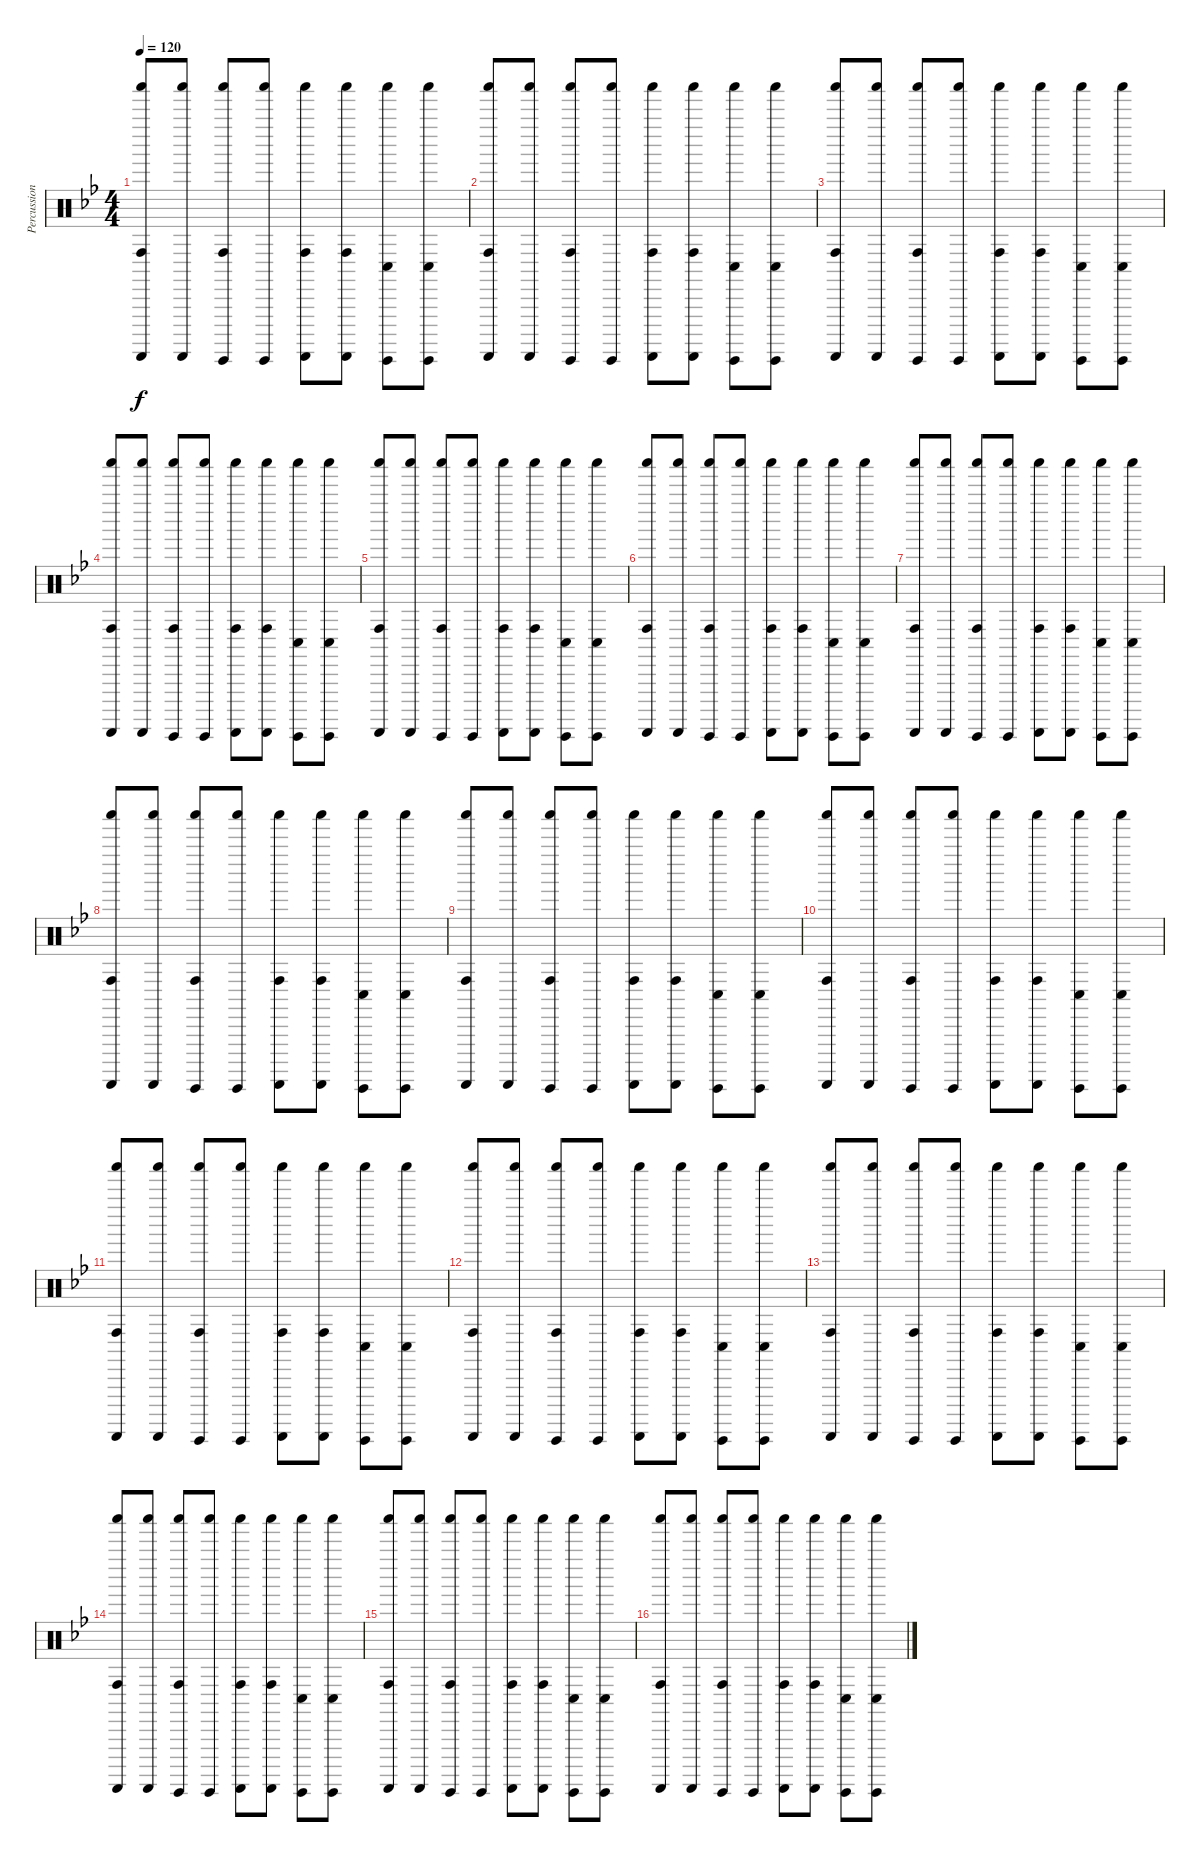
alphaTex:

\track ("Percussion" "Percussion") {instrument percussion}
\staff {score}
\articulation defaults
\ts (4 4)
\tempo 120
\clef neutral
\ks bb
("Shaker (hit)" "Guiro (scrap-return)" "Conga high (hit)").8{dy f} ("Shaker (hit)" "Guiro (scrap-return)").8 ("Shaker (hit)" "Guiro (hit)" "Conga high (hit)").8 ("Shaker (hit)" "Guiro (hit)").8 ("Shaker (hit)" "Guiro (scrap-return)" "Conga high (hit)").8 ("Shaker (hit)" "Guiro (scrap-return)" "Conga high (hit)").8 ("Shaker (hit)" "Guiro (hit)" "Conga low (hit)").8 ("Shaker (hit)" "Guiro (hit)" "Conga low (hit)").8 |
("Shaker (hit)" "Guiro (scrap-return)" "Conga high (hit)").8 ("Shaker (hit)" "Guiro (scrap-return)").8 ("Shaker (hit)" "Guiro (hit)" "Conga high (hit)").8 ("Shaker (hit)" "Guiro (hit)").8 ("Shaker (hit)" "Guiro (scrap-return)" "Conga high (hit)").8 ("Shaker (hit)" "Guiro (scrap-return)" "Conga high (hit)").8 ("Shaker (hit)" "Guiro (hit)" "Conga low (hit)").8 ("Shaker (hit)" "Guiro (hit)" "Conga low (hit)").8 |
("Shaker (hit)" "Guiro (scrap-return)" "Conga high (hit)").8 ("Shaker (hit)" "Guiro (scrap-return)").8 ("Shaker (hit)" "Guiro (hit)" "Conga high (hit)").8 ("Shaker (hit)" "Guiro (hit)").8 ("Shaker (hit)" "Guiro (scrap-return)" "Conga high (hit)").8 ("Shaker (hit)" "Guiro (scrap-return)" "Conga high (hit)").8 ("Shaker (hit)" "Guiro (hit)" "Conga low (hit)").8 ("Shaker (hit)" "Guiro (hit)" "Conga low (hit)").8 |
("Shaker (hit)" "Guiro (scrap-return)" "Conga high (hit)").8 ("Shaker (hit)" "Guiro (scrap-return)").8 ("Shaker (hit)" "Guiro (hit)" "Conga high (hit)").8 ("Shaker (hit)" "Guiro (hit)").8 ("Shaker (hit)" "Guiro (scrap-return)" "Conga high (hit)").8 ("Shaker (hit)" "Guiro (scrap-return)" "Conga high (hit)").8 ("Shaker (hit)" "Guiro (hit)" "Conga low (hit)").8 ("Shaker (hit)" "Guiro (hit)" "Conga low (hit)").8 |
("Shaker (hit)" "Guiro (scrap-return)" "Conga high (hit)").8 ("Shaker (hit)" "Guiro (scrap-return)").8 ("Shaker (hit)" "Guiro (hit)" "Conga high (hit)").8 ("Shaker (hit)" "Guiro (hit)").8 ("Shaker (hit)" "Guiro (scrap-return)" "Conga high (hit)").8 ("Shaker (hit)" "Guiro (scrap-return)" "Conga high (hit)").8 ("Shaker (hit)" "Guiro (hit)" "Conga low (hit)").8 ("Shaker (hit)" "Guiro (hit)" "Conga low (hit)").8 |
("Shaker (hit)" "Guiro (scrap-return)" "Conga high (hit)").8 ("Shaker (hit)" "Guiro (scrap-return)").8 ("Shaker (hit)" "Guiro (hit)" "Conga high (hit)").8 ("Shaker (hit)" "Guiro (hit)").8 ("Shaker (hit)" "Guiro (scrap-return)" "Conga high (hit)").8 ("Shaker (hit)" "Guiro (scrap-return)" "Conga high (hit)").8 ("Shaker (hit)" "Guiro (hit)" "Conga low (hit)").8 ("Shaker (hit)" "Guiro (hit)" "Conga low (hit)").8 |
("Shaker (hit)" "Guiro (scrap-return)" "Conga high (hit)").8 ("Shaker (hit)" "Guiro (scrap-return)").8 ("Shaker (hit)" "Guiro (hit)" "Conga high (hit)").8 ("Shaker (hit)" "Guiro (hit)").8 ("Shaker (hit)" "Guiro (scrap-return)" "Conga high (hit)").8 ("Shaker (hit)" "Guiro (scrap-return)" "Conga high (hit)").8 ("Shaker (hit)" "Guiro (hit)" "Conga low (hit)").8 ("Shaker (hit)" "Guiro (hit)" "Conga low (hit)").8 |
("Shaker (hit)" "Guiro (scrap-return)" "Conga high (hit)").8 ("Shaker (hit)" "Guiro (scrap-return)").8 ("Shaker (hit)" "Guiro (hit)" "Conga high (hit)").8 ("Shaker (hit)" "Guiro (hit)").8 ("Shaker (hit)" "Guiro (scrap-return)" "Conga high (hit)").8 ("Shaker (hit)" "Guiro (scrap-return)" "Conga high (hit)").8 ("Shaker (hit)" "Guiro (hit)" "Conga low (hit)").8 ("Shaker (hit)" "Guiro (hit)" "Conga low (hit)").8 |
("Shaker (hit)" "Guiro (scrap-return)" "Conga high (hit)").8 ("Shaker (hit)" "Guiro (scrap-return)").8 ("Shaker (hit)" "Guiro (hit)" "Conga high (hit)").8 ("Shaker (hit)" "Guiro (hit)").8 ("Shaker (hit)" "Guiro (scrap-return)" "Conga high (hit)").8 ("Shaker (hit)" "Guiro (scrap-return)" "Conga high (hit)").8 ("Shaker (hit)" "Guiro (hit)" "Conga low (hit)").8 ("Shaker (hit)" "Guiro (hit)" "Conga low (hit)").8 |
("Shaker (hit)" "Guiro (scrap-return)" "Conga high (hit)").8 ("Shaker (hit)" "Guiro (scrap-return)").8 ("Shaker (hit)" "Guiro (hit)" "Conga high (hit)").8 ("Shaker (hit)" "Guiro (hit)").8 ("Shaker (hit)" "Guiro (scrap-return)" "Conga high (hit)").8 ("Shaker (hit)" "Guiro (scrap-return)" "Conga high (hit)").8 ("Shaker (hit)" "Guiro (hit)" "Conga low (hit)").8 ("Shaker (hit)" "Guiro (hit)" "Conga low (hit)").8 |
("Shaker (hit)" "Guiro (scrap-return)" "Conga high (hit)").8 ("Shaker (hit)" "Guiro (scrap-return)").8 ("Shaker (hit)" "Guiro (hit)" "Conga high (hit)").8 ("Shaker (hit)" "Guiro (hit)").8 ("Shaker (hit)" "Guiro (scrap-return)" "Conga high (hit)").8 ("Shaker (hit)" "Guiro (scrap-return)" "Conga high (hit)").8 ("Shaker (hit)" "Guiro (hit)" "Conga low (hit)").8 ("Shaker (hit)" "Guiro (hit)" "Conga low (hit)").8 |
("Shaker (hit)" "Guiro (scrap-return)" "Conga high (hit)").8 ("Shaker (hit)" "Guiro (scrap-return)").8 ("Shaker (hit)" "Guiro (hit)" "Conga high (hit)").8 ("Shaker (hit)" "Guiro (hit)").8 ("Shaker (hit)" "Guiro (scrap-return)" "Conga high (hit)").8 ("Shaker (hit)" "Guiro (scrap-return)" "Conga high (hit)").8 ("Shaker (hit)" "Guiro (hit)" "Conga low (hit)").8 ("Shaker (hit)" "Guiro (hit)" "Conga low (hit)").8 |
("Shaker (hit)" "Guiro (scrap-return)" "Conga high (hit)").8 ("Shaker (hit)" "Guiro (scrap-return)").8 ("Shaker (hit)" "Guiro (hit)" "Conga high (hit)").8 ("Shaker (hit)" "Guiro (hit)").8 ("Shaker (hit)" "Guiro (scrap-return)" "Conga high (hit)").8 ("Shaker (hit)" "Guiro (scrap-return)" "Conga high (hit)").8 ("Shaker (hit)" "Guiro (hit)" "Conga low (hit)").8 ("Shaker (hit)" "Guiro (hit)" "Conga low (hit)").8 |
("Shaker (hit)" "Guiro (scrap-return)" "Conga high (hit)").8 ("Shaker (hit)" "Guiro (scrap-return)").8 ("Shaker (hit)" "Guiro (hit)" "Conga high (hit)").8 ("Shaker (hit)" "Guiro (hit)").8 ("Shaker (hit)" "Guiro (scrap-return)" "Conga high (hit)").8 ("Shaker (hit)" "Guiro (scrap-return)" "Conga high (hit)").8 ("Shaker (hit)" "Guiro (hit)" "Conga low (hit)").8 ("Shaker (hit)" "Guiro (hit)" "Conga low (hit)").8 |
("Shaker (hit)" "Guiro (scrap-return)" "Conga high (hit)").8 ("Shaker (hit)" "Guiro (scrap-return)").8 ("Shaker (hit)" "Guiro (hit)" "Conga high (hit)").8 ("Shaker (hit)" "Guiro (hit)").8 ("Shaker (hit)" "Guiro (scrap-return)" "Conga high (hit)").8 ("Shaker (hit)" "Guiro (scrap-return)" "Conga high (hit)").8 ("Shaker (hit)" "Guiro (hit)" "Conga low (hit)").8 ("Shaker (hit)" "Guiro (hit)" "Conga low (hit)").8 |
("Shaker (hit)" "Guiro (scrap-return)" "Conga high (hit)").8 ("Shaker (hit)" "Guiro (scrap-return)").8 ("Shaker (hit)" "Guiro (hit)" "Conga high (hit)").8 ("Shaker (hit)" "Guiro (hit)").8 ("Shaker (hit)" "Guiro (scrap-return)" "Conga high (hit)").8 ("Shaker (hit)" "Guiro (scrap-return)" "Conga high (hit)").8 ("Shaker (hit)" "Guiro (hit)" "Conga low (hit)").8 ("Shaker (hit)" "Guiro (hit)" "Conga low (hit)").8
